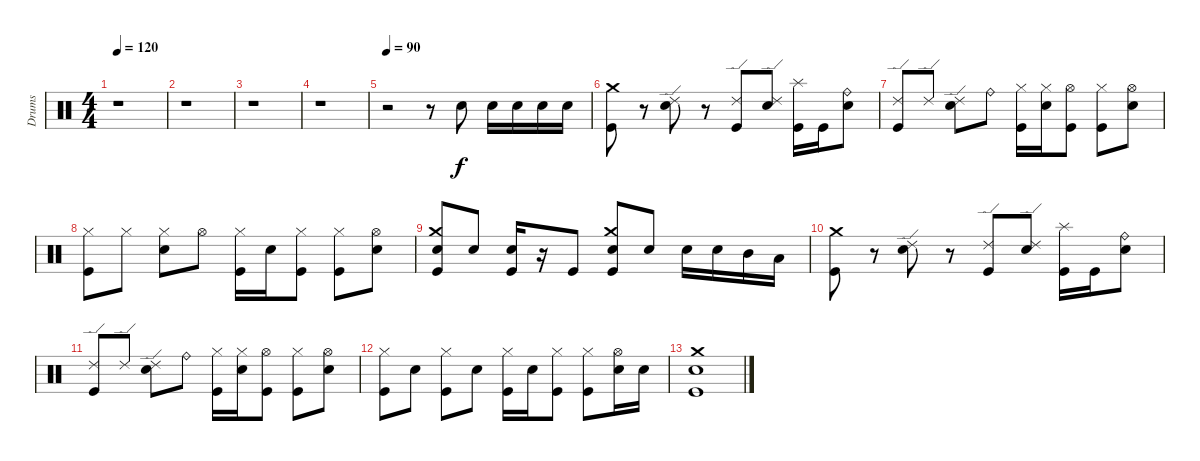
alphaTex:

\track ("Drums" "Drums") {instrument percussion}
\staff {score}
\articulation defaults
\ts (4 4)
\tempo 120
\clef neutral
\ks c
r.1{dy f} |
r.1 |
r.1 |
r.1 |
\tempo 90
r.2 r.8 "Snare (hit) 2".8 "Snare (hit) 2".16 "Snare (hit) 2".16 "Snare (hit) 2".16 "Snare (hit) 2".16 |
("Crash medium (hit)" "Kick (hit)").8 r.8 ("Ride (edge) 2" "Snare (hit) 2").8 r.8 ("Ride (edge) 2" "Kick (hit)").8 ("Ride (edge) 2" "Snare (hit) 2").8 ("Splash (hit)" "Kick (hit)").16 "Kick (hit)".16 ("Ride (bell)" "Snare (hit) 2").8 |
("Ride (edge) 2" "Kick (hit)").8 "Ride (edge) 2".8 ("Ride (edge) 2" "Snare (hit) 2").8 "Ride (bell)".8 ("Hi-Hat (closed)" "Kick (hit)").16 ("Hi-Hat (closed)" "Snare (hit) 2").16 ("Hi-Hat (open)" "Kick (hit)").8 ("Hi-Hat (closed)" "Kick (hit)").8 ("Hi-Hat (open)" "Snare (hit) 2").8 |
("Hi-Hat (closed)" "Kick (hit)").8 "Hi-Hat (closed)".8 ("Hi-Hat (closed)" "Snare (hit) 2").8 "Hi-Hat (open)".8 ("Hi-Hat (closed)" "Kick (hit)").16 "Snare (hit) 2".16 ("Hi-Hat (closed)" "Kick (hit)").8 ("Hi-Hat (closed)" "Kick (hit)").8 ("Hi-Hat (open)" "Snare (hit) 2").8 |
("Crash medium (hit)" "Snare (hit) 2" "Kick (hit)").8 "Snare (hit) 2".8 ("Snare (hit) 2" "Kick (hit)").16 r.16 "Kick (hit)".8 ("Crash medium (hit)" "Snare (hit) 2" "Kick (hit)").8 "Snare (hit) 2".8 "Snare (hit) 2".16 "Snare (hit) 2".16 "Mid Tom (hit)".16 "Low Tom (hit)".16 |
("Crash medium (hit)" "Kick (hit)").8 r.8 ("Ride (edge) 2" "Snare (hit) 2").8 r.8 ("Ride (edge) 2" "Kick (hit)").8 ("Ride (edge) 2" "Snare (hit) 2").8 ("Splash (hit)" "Kick (hit)").16 "Kick (hit)".16 ("Ride (bell)" "Snare (hit) 2").8 |
("Ride (edge) 2" "Kick (hit)").8 "Ride (edge) 2".8 ("Ride (edge) 2" "Snare (hit) 2").8 "Ride (bell)".8 ("Hi-Hat (closed)" "Kick (hit)").16 ("Hi-Hat (closed)" "Snare (hit) 2").16 ("Hi-Hat (open)" "Kick (hit)").8 ("Hi-Hat (closed)" "Kick (hit)").8 ("Hi-Hat (open)" "Snare (hit) 2").8 |
("Hi-Hat (closed)" "Kick (hit)").8 "Snare (hit) 2".8 ("Hi-Hat (closed)" "Kick (hit)").8 "Snare (hit) 2".8 ("Hi-Hat (closed)" "Kick (hit)").16 "Snare (hit) 2".16 ("Hi-Hat (closed)" "Kick (hit)").8 ("Hi-Hat (closed)" "Kick (hit)").8 ("Hi-Hat (open)" "Snare (hit) 2").16 "Snare (hit) 2".16 |
("Crash medium (hit)" "Snare (hit) 2" "Kick (hit)").1
